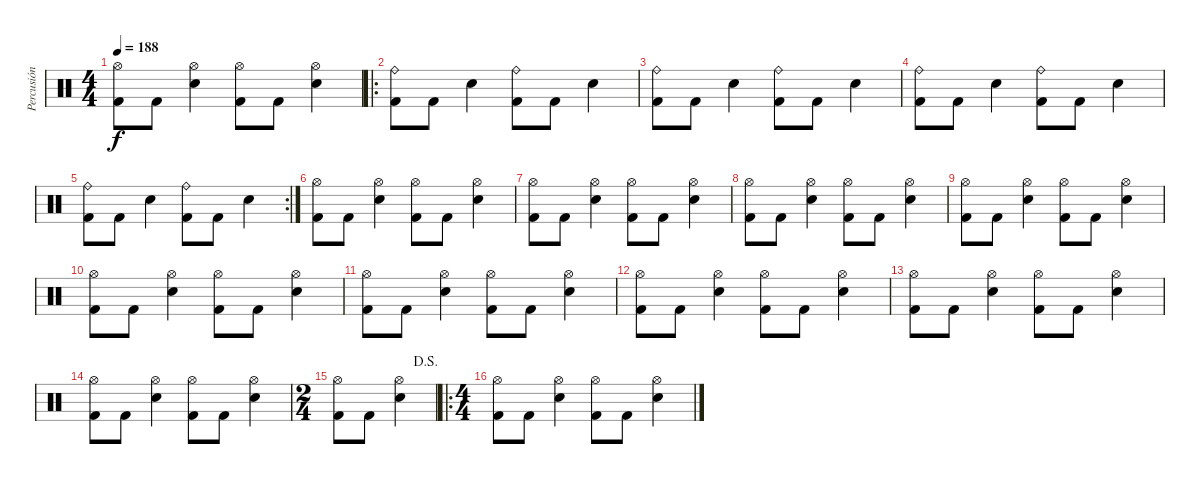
\track ("Percusión" "Percusión") {instrument percussion}
\staff {score}
\articulation defaults
\ts (4 4)
\tempo 188
\clef neutral
\ks c
("Kick (hit) 2" "Hi-Hat (open)").8{dy f} "Kick (hit) 2".8 ("Electric Snare (hit)" "Hi-Hat (open)").4 ("Kick (hit) 2" "Hi-Hat (open)").8 "Kick (hit) 2".8 ("Electric Snare (hit)" "Hi-Hat (open)").4 |
\ro
("Kick (hit) 2" "Ride (bell)").8 "Kick (hit) 2".8 "Electric Snare (hit)".4 ("Kick (hit) 2" "Ride (bell)").8 "Kick (hit) 2".8 "Electric Snare (hit)".4 |
("Kick (hit) 2" "Ride (bell)").8 "Kick (hit) 2".8 "Electric Snare (hit)".4 ("Kick (hit) 2" "Ride (bell)").8 "Kick (hit) 2".8 "Electric Snare (hit)".4 |
("Kick (hit) 2" "Ride (bell)").8 "Kick (hit) 2".8 "Electric Snare (hit)".4 ("Kick (hit) 2" "Ride (bell)").8 "Kick (hit) 2".8 "Electric Snare (hit)".4 |
\rc 2
("Kick (hit) 2" "Ride (bell)").8 "Kick (hit) 2".8 "Electric Snare (hit)".4 ("Kick (hit) 2" "Ride (bell)").8 "Kick (hit) 2".8 "Electric Snare (hit)".4 |
("Kick (hit) 2" "Hi-Hat (open)").8 "Kick (hit) 2".8 ("Electric Snare (hit)" "Hi-Hat (open)").4 ("Kick (hit) 2" "Hi-Hat (open)").8 "Kick (hit) 2".8 ("Electric Snare (hit)" "Hi-Hat (open)").4 |
("Kick (hit) 2" "Hi-Hat (open)").8 "Kick (hit) 2".8 ("Electric Snare (hit)" "Hi-Hat (open)").4 ("Kick (hit) 2" "Hi-Hat (open)").8 "Kick (hit) 2".8 ("Electric Snare (hit)" "Hi-Hat (open)").4 |
("Kick (hit) 2" "Hi-Hat (open)").8 "Kick (hit) 2".8 ("Electric Snare (hit)" "Hi-Hat (open)").4 ("Kick (hit) 2" "Hi-Hat (open)").8 "Kick (hit) 2".8 ("Electric Snare (hit)" "Hi-Hat (open)").4 |
("Kick (hit) 2" "Hi-Hat (open)").8 "Kick (hit) 2".8 ("Electric Snare (hit)" "Hi-Hat (open)").4 ("Kick (hit) 2" "Hi-Hat (open)").8 "Kick (hit) 2".8 ("Electric Snare (hit)" "Hi-Hat (open)").4 |
("Kick (hit) 2" "Hi-Hat (open)").8 "Kick (hit) 2".8 ("Electric Snare (hit)" "Hi-Hat (open)").4 ("Kick (hit) 2" "Hi-Hat (open)").8 "Kick (hit) 2".8 ("Electric Snare (hit)" "Hi-Hat (open)").4 |
("Kick (hit) 2" "Hi-Hat (open)").8 "Kick (hit) 2".8 ("Electric Snare (hit)" "Hi-Hat (open)").4 ("Kick (hit) 2" "Hi-Hat (open)").8 "Kick (hit) 2".8 ("Electric Snare (hit)" "Hi-Hat (open)").4 |
("Kick (hit) 2" "Hi-Hat (open)").8 "Kick (hit) 2".8 ("Electric Snare (hit)" "Hi-Hat (open)").4 ("Kick (hit) 2" "Hi-Hat (open)").8 "Kick (hit) 2".8 ("Electric Snare (hit)" "Hi-Hat (open)").4 |
("Kick (hit) 2" "Hi-Hat (open)").8 "Kick (hit) 2".8 ("Electric Snare (hit)" "Hi-Hat (open)").4 ("Kick (hit) 2" "Hi-Hat (open)").8 "Kick (hit) 2".8 ("Electric Snare (hit)" "Hi-Hat (open)").4 |
("Kick (hit) 2" "Hi-Hat (open)").8 "Kick (hit) 2".8 ("Electric Snare (hit)" "Hi-Hat (open)").4 ("Kick (hit) 2" "Hi-Hat (open)").8 "Kick (hit) 2".8 ("Electric Snare (hit)" "Hi-Hat (open)").4 |
\ts (2 4)
\jump dalsegno
("Kick (hit) 2" "Hi-Hat (open)").8 "Kick (hit) 2".8 ("Electric Snare (hit)" "Hi-Hat (open)").4 |
\ro
\ts (4 4)
("Kick (hit) 2" "Hi-Hat (open)").8 "Kick (hit) 2".8 ("Electric Snare (hit)" "Hi-Hat (open)").4 ("Kick (hit) 2" "Hi-Hat (open)").8 "Kick (hit) 2".8 ("Electric Snare (hit)" "Hi-Hat (open)").4
